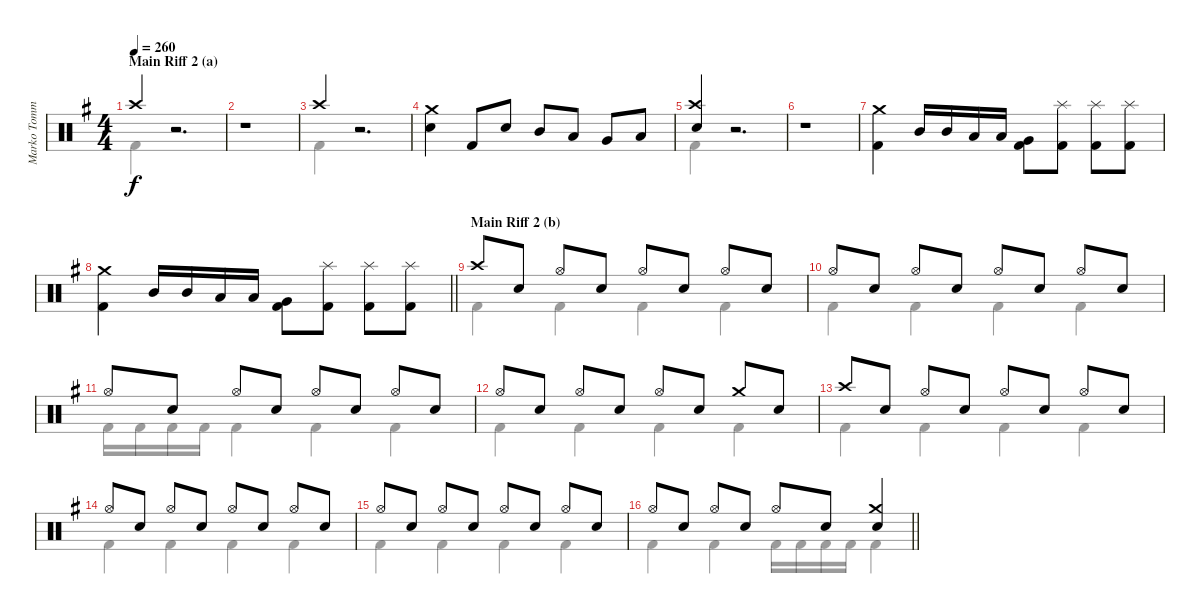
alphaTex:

\track ("Marko Tommila (drums)" "Marko Tomm") {instrument percussion}
\staff {score}
\articulation defaults
\voice
\ts (4 4)
\section ("" "Main Riff 2 (a)")
\tempo 260
\clef neutral
\ks eminor "Crash high (hit)".4{dy f}
r.2{d} |
r.1 |
"Crash high (hit)".4 r.2{d} |
("Electric Snare (hit)" "Crash medium (hit)").4 "Kick (hit) 2".8 "Electric Snare (hit)".8 "Mid Tom (hit)".8 "Low Tom (hit)".8 "Very Low Tom (hit)".8 "Low Floor Tom (hit)".8 |
("Crash high (hit)" "Electric Snare (hit)").4 r.2{d} |
r.1 |
("Crash medium (hit)" "Kick (hit) 2").4 "Mid Tom (hit)".16 "Mid Tom (hit)".16 "Low Tom (hit)".16 "Low Tom (hit)".16 ("Very Low Tom (hit)" "Kick (hit) 2").8 ("Splash (hit)" "Kick (hit) 2").8 ("Splash (hit)" "Kick (hit) 2").8 ("Splash (hit)" "Kick (hit) 2").8 |
\barLineRight lightlight
("Crash medium (hit)" "Kick (hit) 2").4 "Mid Tom (hit)".16 "Mid Tom (hit)".16 "Low Tom (hit)".16 "Low Tom (hit)".16 ("Very Low Tom (hit)" "Kick (hit) 2").8 ("Splash (hit)" "Kick (hit) 2").8 ("Splash (hit)" "Kick (hit) 2").8 ("Splash (hit)" "Kick (hit) 2").8 |
\section ("" "Main Riff 2 (b)")
"Crash high (hit)".8 "Electric Snare (hit)".8 "Hi-Hat (open)".8 "Electric Snare (hit)".8 "Hi-Hat (open)".8 "Electric Snare (hit)".8 "Hi-Hat (open)".8 "Electric Snare (hit)".8 |
"Hi-Hat (open)".8 "Electric Snare (hit)".8 "Hi-Hat (open)".8 "Electric Snare (hit)".8 "Hi-Hat (open)".8 "Electric Snare (hit)".8 "Hi-Hat (open)".8 "Electric Snare (hit)".8 |
"Hi-Hat (open)".8 "Electric Snare (hit)".8 "Hi-Hat (open)".8 "Electric Snare (hit)".8 "Hi-Hat (open)".8 "Electric Snare (hit)".8 "Hi-Hat (open)".8 "Electric Snare (hit)".8 |
"Hi-Hat (open)".8 "Electric Snare (hit)".8 "Hi-Hat (open)".8 "Electric Snare (hit)".8 "Hi-Hat (open)".8 "Electric Snare (hit)".8 "Crash medium (hit)".8 "Electric Snare (hit)".8 |
"Crash high (hit)".8 "Electric Snare (hit)".8 "Hi-Hat (open)".8 "Electric Snare (hit)".8 "Hi-Hat (open)".8 "Electric Snare (hit)".8 "Hi-Hat (open)".8 "Electric Snare (hit)".8 |
"Hi-Hat (open)".8 "Electric Snare (hit)".8 "Hi-Hat (open)".8 "Electric Snare (hit)".8 "Hi-Hat (open)".8 "Electric Snare (hit)".8 "Hi-Hat (open)".8 "Electric Snare (hit)".8 |
"Hi-Hat (open)".8 "Electric Snare (hit)".8 "Hi-Hat (open)".8 "Electric Snare (hit)".8 "Hi-Hat (open)".8 "Electric Snare (hit)".8 "Hi-Hat (open)".8 "Electric Snare (hit)".8 |
\barLineRight lightlight "Hi-Hat (open)".8 "Electric Snare (hit)".8 "Hi-Hat (open)".8 "Electric Snare (hit)".8 "Hi-Hat (open)".8 "Electric Snare (hit)".8
("Crash medium (hit)" "Electric Snare (hit)").4
\voice
\clef neutral
\ottava regular
\simile none
\ks eminor "Kick (hit) 2".4{dy f}
r.2{d} |
|
"Kick (hit) 2".4 r.2{d} |
|
"Kick (hit) 2".4 r.2{d} |
|
|
\barLineRight lightlight
|
"Kick (hit) 2".4 "Kick (hit) 2".4 "Kick (hit) 2".4 "Kick (hit) 2".4 |
"Kick (hit) 2".4 "Kick (hit) 2".4 "Kick (hit) 2".4 "Kick (hit) 2".4 |
"Kick (hit) 2".16 "Kick (hit) 2".16 "Kick (hit) 2".16 "Kick (hit) 2".16 "Kick (hit) 2".4 "Kick (hit) 2".4 "Kick (hit) 2".4 |
"Kick (hit) 2".4 "Kick (hit) 2".4 "Kick (hit) 2".4 "Kick (hit) 2".4 |
"Kick (hit) 2".4 "Kick (hit) 2".4 "Kick (hit) 2".4 "Kick (hit) 2".4 |
"Kick (hit) 2".4 "Kick (hit) 2".4 "Kick (hit) 2".4 "Kick (hit) 2".4 |
"Kick (hit) 2".4 "Kick (hit) 2".4 "Kick (hit) 2".4 "Kick (hit) 2".4 |
\barLineRight lightlight "Kick (hit) 2".4 "Kick (hit) 2".4 "Kick (hit) 2".16 "Kick (hit) 2".16 "Kick (hit) 2".16 "Kick (hit) 2".16 "Kick (hit) 2".4
